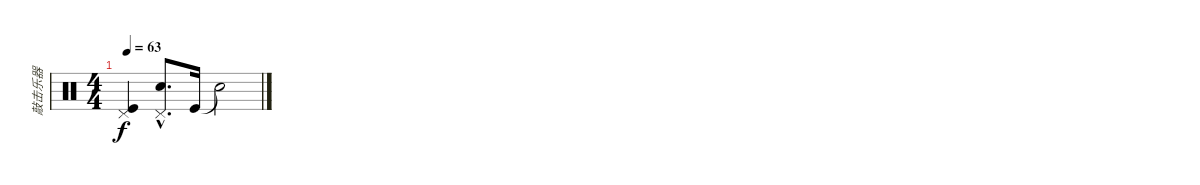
\track ("敲击乐器" "敲击乐器") {instrument percussion}
\staff {score}
\articulation defaults
\ts (4 4)
\tempo 63
\clef neutral
\ks c
("Pedal Hi-Hat (hit)" "Kick (hit)").4{dy f} ("Pedal Hi-Hat (hit)"{hac} "Snare (hit) 2"{hac}).8{d} "Kick (hit)".16 "Snare (hit)"{t}.2
